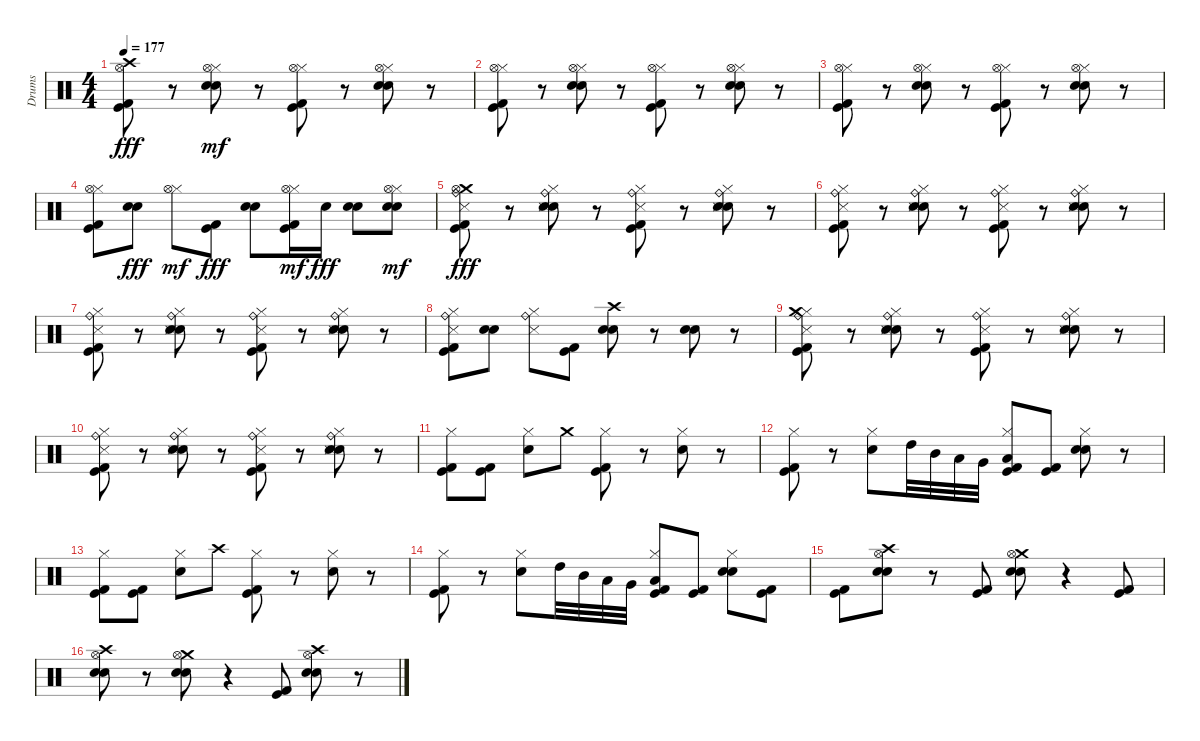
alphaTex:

\track ("Drums" "Drums") {instrument percussion}
\staff {score}
\articulation defaults
\ts (4 4)
\tempo 177
\clef neutral
\ks c
("Crash high (hit)" "Kick (hit) 2" "Kick (hit)" "Hi-Hat (open)").8{dy fff} r.8 ("Hi-Hat (closed)" "Electric Snare (hit)" "Snare (hit) 2" "Hi-Hat (open)").8{dy mf} r.8 ("Hi-Hat (closed)" "Kick (hit) 2" "Kick (hit)" "Hi-Hat (open)").8 r.8 ("Hi-Hat (closed)" "Electric Snare (hit)" "Snare (hit) 2" "Hi-Hat (open)").8 r.8 |
("Hi-Hat (closed)" "Kick (hit) 2" "Kick (hit)" "Hi-Hat (open)").8 r.8 ("Hi-Hat (closed)" "Electric Snare (hit)" "Snare (hit) 2" "Hi-Hat (open)").8 r.8 ("Hi-Hat (closed)" "Kick (hit) 2" "Kick (hit)" "Hi-Hat (open)").8 r.8 ("Hi-Hat (closed)" "Electric Snare (hit)" "Snare (hit) 2" "Hi-Hat (open)").8 r.8 |
("Hi-Hat (closed)" "Kick (hit) 2" "Kick (hit)" "Hi-Hat (open)").8 r.8 ("Hi-Hat (closed)" "Electric Snare (hit)" "Snare (hit) 2" "Hi-Hat (open)").8 r.8 ("Hi-Hat (closed)" "Kick (hit) 2" "Kick (hit)" "Hi-Hat (open)").8 r.8 ("Hi-Hat (closed)" "Electric Snare (hit)" "Snare (hit) 2" "Hi-Hat (open)").8 r.8 |
("Kick (hit)" "Kick (hit) 2" "Hi-Hat (closed)" "Hi-Hat (open)").8 ("Electric Snare (hit)" "Snare (hit) 2").8{dy fff} ("Hi-Hat (closed)" "Hi-Hat (open)").8{dy mf} ("Kick (hit) 2" "Kick (hit)").8{dy fff} ("Electric Snare (hit)" "Snare (hit) 2").8 ("Kick (hit) 2" "Kick (hit)" "Hi-Hat (closed)" "Hi-Hat (open)").16{dy mf} "Snare (hit) 2".16{dy fff} ("Electric Snare (hit)" "Snare (hit) 2").8 ("Electric Snare (hit)" "Snare (hit) 2" "Hi-Hat (closed)" "Hi-Hat (open)").8{dy mf} |
("Crash medium (hit)" "Kick (hit) 2" "Kick (hit)" "Hi-Hat (open)" "Snare (side stick) 3" "Ride (bell)").8{dy fff} r.8 ("Hi-Hat (closed)" "Electric Snare (hit)" "Snare (hit) 2" "Snare (side stick) 3" "Ride (bell)").8 r.8 ("Hi-Hat (closed)" "Kick (hit) 2" "Kick (hit)" "Snare (side stick) 3" "Ride (bell)").8 r.8 ("Hi-Hat (closed)" "Electric Snare (hit)" "Snare (hit) 2" "Snare (side stick) 3" "Ride (bell)").8 r.8 |
("Hi-Hat (closed)" "Kick (hit) 2" "Kick (hit)" "Snare (side stick) 3" "Ride (bell)").8 r.8 ("Hi-Hat (closed)" "Electric Snare (hit)" "Snare (hit) 2" "Snare (side stick) 3" "Ride (bell)").8 r.8 ("Hi-Hat (closed)" "Kick (hit) 2" "Kick (hit)" "Snare (side stick) 3" "Ride (bell)").8 r.8 ("Hi-Hat (closed)" "Electric Snare (hit)" "Snare (hit) 2" "Snare (side stick) 3" "Ride (bell)").8 r.8 |
("Hi-Hat (closed)" "Kick (hit) 2" "Kick (hit)" "Ride (bell)" "Snare (side stick) 3").8 r.8 ("Hi-Hat (closed)" "Electric Snare (hit)" "Snare (hit) 2" "Ride (bell)" "Snare (side stick) 3").8 r.8 ("Hi-Hat (closed)" "Kick (hit) 2" "Kick (hit)" "Ride (bell)" "Snare (side stick) 3").8 r.8 ("Hi-Hat (closed)" "Electric Snare (hit)" "Snare (hit) 2" "Ride (bell)" "Snare (side stick) 3").8 r.8 |
("Kick (hit) 2" "Kick (hit)" "Ride (bell)" "Hi-Hat (closed)" "Snare (side stick) 3").8 ("Electric Snare (hit)" "Snare (hit) 2").8 ("Ride (bell)" "Hi-Hat (closed)" "Snare (side stick) 3").8 ("Kick (hit) 2" "Kick (hit)").8 ("Electric Snare (hit)" "Snare (hit) 2" "Crash high (hit)").8 r.8 ("Electric Snare (hit)" "Snare (hit) 2").8 r.8 |
("Hi-Hat (closed)" "Kick (hit) 2" "Kick (hit)" "Snare (side stick) 3" "Ride (bell)" "Crash medium (hit)").8 r.8 ("Hi-Hat (closed)" "Electric Snare (hit)" "Snare (hit) 2" "Snare (side stick) 3" "Ride (bell)").8 r.8 ("Hi-Hat (closed)" "Kick (hit) 2" "Kick (hit)" "Snare (side stick) 3" "Ride (bell)").8 r.8 ("Hi-Hat (closed)" "Electric Snare (hit)" "Snare (hit) 2" "Snare (side stick) 3" "Ride (bell)").8 r.8 |
("Hi-Hat (closed)" "Kick (hit) 2" "Kick (hit)" "Snare (side stick) 3" "Ride (bell)").8 r.8 ("Hi-Hat (closed)" "Electric Snare (hit)" "Snare (hit) 2" "Snare (side stick) 3" "Ride (bell)").8 r.8 ("Hi-Hat (closed)" "Kick (hit) 2" "Kick (hit)" "Snare (side stick) 3" "Ride (bell)").8 r.8 ("Hi-Hat (closed)" "Electric Snare (hit)" "Snare (hit) 2" "Snare (side stick) 3" "Ride (bell)").8 r.8 |
("Hi-Hat (closed)" "Kick (hit) 2" "Kick (hit)").8 ("Kick (hit) 2" "Kick (hit)").8 ("Hi-Hat (closed)" "Electric Snare (hit)").8 "Crash medium (hit)".8 ("Hi-Hat (closed)" "Kick (hit) 2" "Kick (hit)").8 r.8 ("Hi-Hat (closed)" "Electric Snare (hit)").8 r.8 |
("Hi-Hat (closed)" "Kick (hit) 2" "Kick (hit)").8 r.8 ("Hi-Hat (closed)" "Electric Snare (hit)").8 "High Tom (hit)".32 "Mid Tom (hit)".32 "Low Tom (hit)".32 "Very Low Tom (hit)".32 ("Hi-Hat (closed)" "Kick (hit) 2" "Kick (hit)" "Low Floor Tom (hit)").8 ("Kick (hit) 2" "Kick (hit)").8 ("Hi-Hat (closed)" "Electric Snare (hit)" "Snare (hit) 2").8 r.8 |
("Hi-Hat (closed)" "Kick (hit) 2" "Kick (hit)").8 ("Kick (hit) 2" "Kick (hit)").8 ("Hi-Hat (closed)" "Electric Snare (hit)").8 "Crash high (hit)".8 ("Hi-Hat (closed)" "Kick (hit) 2" "Kick (hit)").8 r.8 ("Hi-Hat (closed)" "Electric Snare (hit)").8 r.8 |
("Hi-Hat (closed)" "Kick (hit) 2" "Kick (hit)").8 r.8 ("Hi-Hat (closed)" "Electric Snare (hit)").8 "High Tom (hit)".32 "Mid Tom (hit)".32 "Low Tom (hit)".32 "Very Low Tom (hit)".32 ("Hi-Hat (closed)" "Kick (hit) 2" "Kick (hit)" "Low Floor Tom (hit)").8 ("Kick (hit) 2" "Kick (hit)").8 ("Hi-Hat (closed)" "Electric Snare (hit)" "Snare (hit) 2").8 ("Kick (hit) 2" "Kick (hit)").8 |
("Kick (hit) 2" "Kick (hit)").8 ("Crash high (hit)" "Electric Snare (hit)" "Snare (hit) 2" "Hi-Hat (open)").8 r.8 ("Kick (hit) 2" "Kick (hit)").8 ("Crash medium (hit)" "Hi-Hat (open)" "Electric Snare (hit)" "Snare (hit) 2").8 r.4 ("Kick (hit) 2" "Kick (hit)").8 |
("Crash high (hit)" "Hi-Hat (open)" "Electric Snare (hit)" "Snare (hit) 2").8 r.8 ("Crash medium (hit)" "Hi-Hat (open)" "Electric Snare (hit)" "Snare (hit) 2").8 r.4 ("Kick (hit) 2" "Kick (hit)").8 ("Crash high (hit)" "Hi-Hat (open)" "Electric Snare (hit)" "Snare (hit) 2").8 r.8
